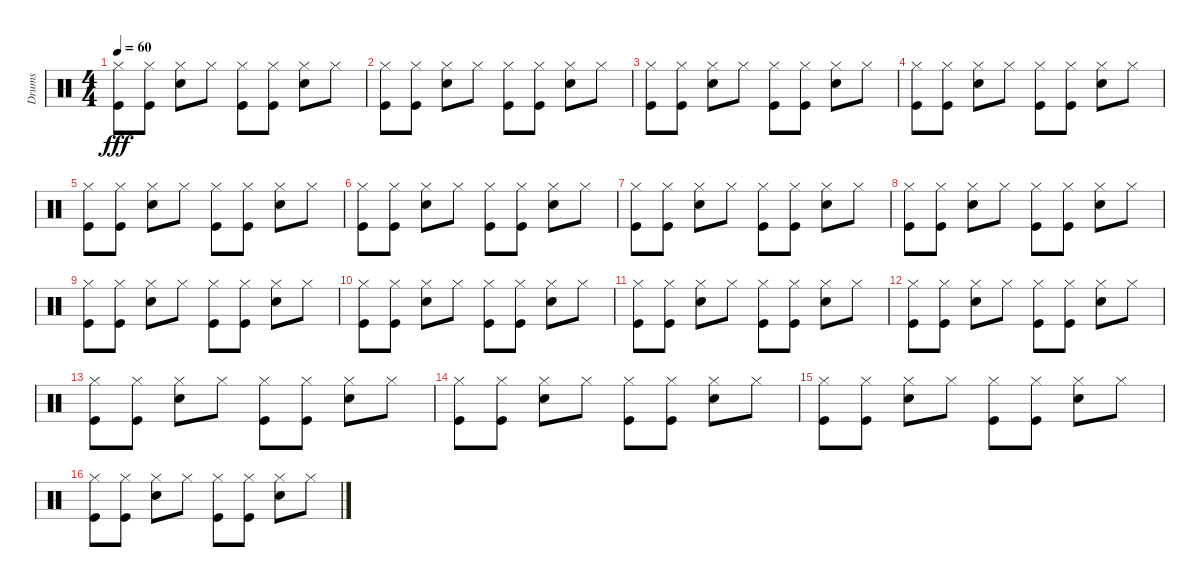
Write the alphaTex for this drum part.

\track ("Drums" "Drums") {instrument percussion}
\staff {score}
\articulation defaults
\ts (4 4)
\tempo 60
\clef neutral
\ks c
("Hi-Hat (closed)" "Kick (hit)").8{dy fff} ("Hi-Hat (closed)" "Kick (hit)").8 ("Hi-Hat (closed)" "Snare (hit) 2").8 "Hi-Hat (closed)".8 ("Hi-Hat (closed)" "Kick (hit)").8 ("Hi-Hat (closed)" "Kick (hit)").8 ("Hi-Hat (closed)" "Snare (hit) 2").8 "Hi-Hat (closed)".8 |
("Hi-Hat (closed)" "Kick (hit)").8 ("Hi-Hat (closed)" "Kick (hit)").8 ("Hi-Hat (closed)" "Snare (hit) 2").8 "Hi-Hat (closed)".8 ("Hi-Hat (closed)" "Kick (hit)").8 ("Hi-Hat (closed)" "Kick (hit)").8 ("Hi-Hat (closed)" "Snare (hit) 2").8 "Hi-Hat (closed)".8 |
("Hi-Hat (closed)" "Kick (hit)").8 ("Hi-Hat (closed)" "Kick (hit)").8 ("Hi-Hat (closed)" "Snare (hit) 2").8 "Hi-Hat (closed)".8 ("Hi-Hat (closed)" "Kick (hit)").8 ("Hi-Hat (closed)" "Kick (hit)").8 ("Hi-Hat (closed)" "Snare (hit) 2").8 "Hi-Hat (closed)".8 |
("Hi-Hat (closed)" "Kick (hit)").8 ("Hi-Hat (closed)" "Kick (hit)").8 ("Hi-Hat (closed)" "Snare (hit) 2").8 "Hi-Hat (closed)".8 ("Hi-Hat (closed)" "Kick (hit)").8 ("Hi-Hat (closed)" "Kick (hit)").8 ("Hi-Hat (closed)" "Snare (hit) 2").8 "Hi-Hat (closed)".8 |
("Hi-Hat (closed)" "Kick (hit)").8 ("Hi-Hat (closed)" "Kick (hit)").8 ("Hi-Hat (closed)" "Snare (hit) 2").8 "Hi-Hat (closed)".8 ("Hi-Hat (closed)" "Kick (hit)").8 ("Hi-Hat (closed)" "Kick (hit)").8 ("Hi-Hat (closed)" "Snare (hit) 2").8 "Hi-Hat (closed)".8 |
("Hi-Hat (closed)" "Kick (hit)").8 ("Hi-Hat (closed)" "Kick (hit)").8 ("Hi-Hat (closed)" "Snare (hit) 2").8 "Hi-Hat (closed)".8 ("Hi-Hat (closed)" "Kick (hit)").8 ("Hi-Hat (closed)" "Kick (hit)").8 ("Hi-Hat (closed)" "Snare (hit) 2").8 "Hi-Hat (closed)".8 |
("Hi-Hat (closed)" "Kick (hit)").8 ("Hi-Hat (closed)" "Kick (hit)").8 ("Hi-Hat (closed)" "Snare (hit) 2").8 "Hi-Hat (closed)".8 ("Hi-Hat (closed)" "Kick (hit)").8 ("Hi-Hat (closed)" "Kick (hit)").8 ("Hi-Hat (closed)" "Snare (hit) 2").8 "Hi-Hat (closed)".8 |
("Hi-Hat (closed)" "Kick (hit)").8 ("Hi-Hat (closed)" "Kick (hit)").8 ("Hi-Hat (closed)" "Snare (hit) 2").8 "Hi-Hat (closed)".8 ("Hi-Hat (closed)" "Kick (hit)").8 ("Hi-Hat (closed)" "Kick (hit)").8 ("Hi-Hat (closed)" "Snare (hit) 2").8 "Hi-Hat (closed)".8 |
("Hi-Hat (closed)" "Kick (hit)").8 ("Hi-Hat (closed)" "Kick (hit)").8 ("Hi-Hat (closed)" "Snare (hit) 2").8 "Hi-Hat (closed)".8 ("Hi-Hat (closed)" "Kick (hit)").8 ("Hi-Hat (closed)" "Kick (hit)").8 ("Hi-Hat (closed)" "Snare (hit) 2").8 "Hi-Hat (closed)".8 |
("Hi-Hat (closed)" "Kick (hit)").8 ("Hi-Hat (closed)" "Kick (hit)").8 ("Hi-Hat (closed)" "Snare (hit) 2").8 "Hi-Hat (closed)".8 ("Hi-Hat (closed)" "Kick (hit)").8 ("Hi-Hat (closed)" "Kick (hit)").8 ("Hi-Hat (closed)" "Snare (hit) 2").8 "Hi-Hat (closed)".8 |
("Hi-Hat (closed)" "Kick (hit)").8 ("Hi-Hat (closed)" "Kick (hit)").8 ("Hi-Hat (closed)" "Snare (hit) 2").8 "Hi-Hat (closed)".8 ("Hi-Hat (closed)" "Kick (hit)").8 ("Hi-Hat (closed)" "Kick (hit)").8 ("Hi-Hat (closed)" "Snare (hit) 2").8 "Hi-Hat (closed)".8 |
("Hi-Hat (closed)" "Kick (hit)").8 ("Hi-Hat (closed)" "Kick (hit)").8 ("Hi-Hat (closed)" "Snare (hit) 2").8 "Hi-Hat (closed)".8 ("Hi-Hat (closed)" "Kick (hit)").8 ("Hi-Hat (closed)" "Kick (hit)").8 ("Hi-Hat (closed)" "Snare (hit) 2").8 "Hi-Hat (closed)".8 |
("Hi-Hat (closed)" "Kick (hit)").8 ("Hi-Hat (closed)" "Kick (hit)").8 ("Hi-Hat (closed)" "Snare (hit) 2").8 "Hi-Hat (closed)".8 ("Hi-Hat (closed)" "Kick (hit)").8 ("Hi-Hat (closed)" "Kick (hit)").8 ("Hi-Hat (closed)" "Snare (hit) 2").8 "Hi-Hat (closed)".8 |
("Hi-Hat (closed)" "Kick (hit)").8 ("Hi-Hat (closed)" "Kick (hit)").8 ("Hi-Hat (closed)" "Snare (hit) 2").8 "Hi-Hat (closed)".8 ("Hi-Hat (closed)" "Kick (hit)").8 ("Hi-Hat (closed)" "Kick (hit)").8 ("Hi-Hat (closed)" "Snare (hit) 2").8 "Hi-Hat (closed)".8 |
("Hi-Hat (closed)" "Kick (hit)").8 ("Hi-Hat (closed)" "Kick (hit)").8 ("Hi-Hat (closed)" "Snare (hit) 2").8 "Hi-Hat (closed)".8 ("Hi-Hat (closed)" "Kick (hit)").8 ("Hi-Hat (closed)" "Kick (hit)").8 ("Hi-Hat (closed)" "Snare (hit) 2").8 "Hi-Hat (closed)".8 |
("Hi-Hat (closed)" "Kick (hit)").8 ("Hi-Hat (closed)" "Kick (hit)").8 ("Hi-Hat (closed)" "Snare (hit) 2").8 "Hi-Hat (closed)".8 ("Hi-Hat (closed)" "Kick (hit)").8 ("Hi-Hat (closed)" "Kick (hit)").8 ("Hi-Hat (closed)" "Snare (hit) 2").8 "Hi-Hat (closed)".8
